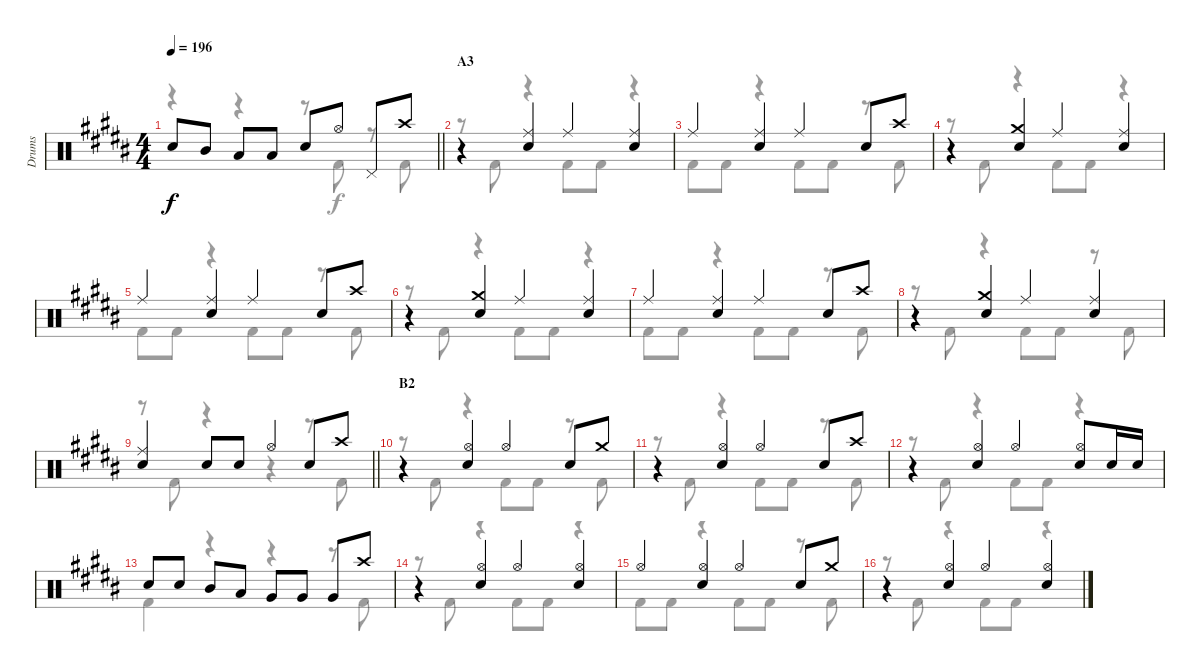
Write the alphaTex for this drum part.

\track ("Drums" "Drums") {instrument percussion}
\staff {score}
\articulation defaults
\voice
\ts (4 4)
\tempo 196
\clef neutral
\barLineRight lightlight
\ks b "Electric Snare (hit)".8{dy f} "Mid Tom (hit)".8 "Low Tom (hit)".8 "Low Tom (hit)".8 "Electric Snare (hit)".8 "Hi-Hat (open)".8 "Pedal Hi-Hat (hit)".8 "Crash high (hit)".8
|
\section ("" "A3")
r.4 ("Ride (middle)" "Electric Snare (hit)").4 "Ride (middle)".4 ("Ride (middle)" "Electric Snare (hit)").4 |
"Ride (middle)".4 ("Ride (middle)" "Electric Snare (hit)").4 "Ride (middle)".4 "Electric Snare (hit)".8 "Crash high (hit)".8 |
r.4 ("Crash medium (hit)" "Electric Snare (hit)").4 "Ride (middle)".4 ("Ride (middle)" "Electric Snare (hit)").4 |
"Ride (middle)".4 ("Ride (middle)" "Electric Snare (hit)").4 "Ride (middle)".4 "Electric Snare (hit)".8 "Crash high (hit)".8 |
r.4 ("Crash medium (hit)" "Electric Snare (hit)").4 "Ride (middle)".4 ("Ride (middle)" "Electric Snare (hit)").4 |
"Ride (middle)".4 ("Ride (middle)" "Electric Snare (hit)").4 "Ride (middle)".4 "Electric Snare (hit)".8 "Crash high (hit)".8 |
r.4 ("Crash medium (hit)" "Electric Snare (hit)").4 "Ride (middle)".4 ("Ride (middle)" "Electric Snare (hit)").4 |
\barLineRight lightlight
("Ride (middle)" "Electric Snare (hit)").4 "Electric Snare (hit)".8 "Electric Snare (hit)".8 "Hi-Hat (open)".4 "Electric Snare (hit)".8 "Crash high (hit)".8 |
\section ("" "B2")
r.4 ("Hi-Hat (open)" "Electric Snare (hit)").4 "Hi-Hat (open)".4 "Electric Snare (hit)".8 "Crash medium (hit)".8 |
r.4 ("Hi-Hat (open)" "Electric Snare (hit)").4 "Hi-Hat (open)".4 "Electric Snare (hit)".8 "Crash high (hit)".8 |
r.4 ("Hi-Hat (open)" "Electric Snare (hit)").4 "Hi-Hat (open)".4 ("Hi-Hat (open)" "Electric Snare (hit)").8 "Electric Snare (hit)".16 "Electric Snare (hit)".16 |
"Electric Snare (hit)".8 "Electric Snare (hit)".8 "Mid Tom (hit)".8 "Low Tom (hit)".8 "Very Low Tom (hit)".8 "Very Low Tom (hit)".8 "Very Low Tom (hit)".8 "Crash high (hit)".8 |
r.4 ("Hi-Hat (open)" "Electric Snare (hit)").4 "Hi-Hat (open)".4 ("Hi-Hat (open)" "Electric Snare (hit)").4 |
"Hi-Hat (open)".4 ("Hi-Hat (open)" "Electric Snare (hit)").4 "Hi-Hat (open)".4 "Electric Snare (hit)".8 "Crash medium (hit)".8 |
r.4 ("Hi-Hat (open)" "Electric Snare (hit)").4 "Hi-Hat (open)".4 ("Hi-Hat (open)" "Electric Snare (hit)").4
\voice
\clef neutral
\ottava regular
\simile none
\barLineRight lightlight
\ks b
r.4{dy f} r.4 r.8 "Kick (hit) 2".8 r.8 "Kick (hit) 2".8 |
r.8 "Kick (hit) 2".8 r.4 "Kick (hit) 2".8 "Kick (hit) 2".8 r.4 |
"Kick (hit) 2".8 "Kick (hit) 2".8 r.4 "Kick (hit) 2".8 "Kick (hit) 2".8 r.8 "Kick (hit) 2".8 |
r.8 "Kick (hit) 2".8 r.4 "Kick (hit) 2".8 "Kick (hit) 2".8 r.4 |
"Kick (hit) 2".8 "Kick (hit) 2".8 r.4 "Kick (hit) 2".8 "Kick (hit) 2".8 r.8 "Kick (hit) 2".8 |
r.8 "Kick (hit) 2".8 r.4 "Kick (hit) 2".8 "Kick (hit) 2".8 r.4 |
"Kick (hit) 2".8 "Kick (hit) 2".8 r.4 "Kick (hit) 2".8 "Kick (hit) 2".8 r.8 "Kick (hit) 2".8 |
r.8 "Kick (hit) 2".8 r.4 "Kick (hit) 2".8 "Kick (hit) 2".8 r.8 "Kick (hit) 2".8 |
\barLineRight lightlight
r.8 "Kick (hit) 2".8 r.4 r.4 r.8 "Kick (hit) 2".8 |
r.8 "Kick (hit) 2".8 r.4 "Kick (hit) 2".8 "Kick (hit) 2".8 r.8 "Kick (hit) 2".8 |
r.8 "Kick (hit) 2".8 r.4 "Kick (hit) 2".8 "Kick (hit) 2".8 r.8 "Kick (hit) 2".8 |
r.8 "Kick (hit) 2".8 r.4 "Kick (hit) 2".8 "Kick (hit) 2".8 r.4 |
"Kick (hit) 2".4 r.4 r.4 r.8 "Kick (hit) 2".8 |
r.8 "Kick (hit) 2".8 r.4 "Kick (hit) 2".8 "Kick (hit) 2".8 r.4 |
"Kick (hit) 2".8 "Kick (hit) 2".8 r.4 "Kick (hit) 2".8 "Kick (hit) 2".8 r.8 "Kick (hit) 2".8 |
r.8 "Kick (hit) 2".8 r.4 "Kick (hit) 2".8 "Kick (hit) 2".8 r.4
